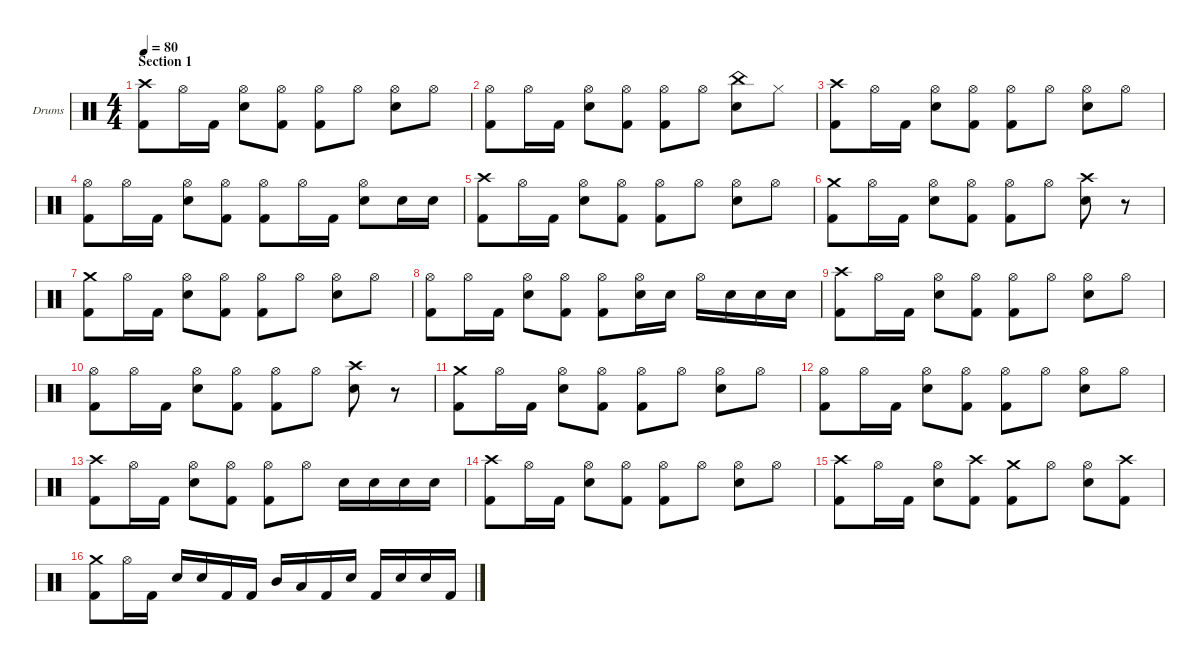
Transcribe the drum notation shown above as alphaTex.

\hideDynamics
\bracketExtendMode nobrackets
\firstSystemTrackNameOrientation horizontal
\otherSystemsTrackNameOrientation horizontal
\track ("Drumkit" "Drums") {instrument percussion}
\staff {score}
\articulation defaults
\ts (4 4)
\section ("" "Section 1")
\tempo 80
\clef neutral
\ks c
("Crash high (hit)" "Kick (hit) 2").8{dy f} "Hi-Hat (open)".16 "Kick (hit) 2".16 ("Hi-Hat (open)" "Snare (hit) 2").8 ("Hi-Hat (open)" "Kick (hit) 2").8 ("Hi-Hat (open)" "Kick (hit) 2").8 "Hi-Hat (open)".8 ("Hi-Hat (open)" "Snare (hit) 2").8 "Hi-Hat (open)".8 |
("Hi-Hat (open)" "Kick (hit) 2").8 "Hi-Hat (open)".16 "Kick (hit) 2".16 ("Hi-Hat (open)" "Snare (hit) 2").8 ("Hi-Hat (open)" "Kick (hit) 2").8 ("Hi-Hat (open)" "Kick (hit) 2").8 "Hi-Hat (open)".8 ("China (hit)" "Snare (hit) 2").8{dy ff} "Hi-Hat (closed)".8{dy mf} |
("Crash high (hit)" "Kick (hit) 2").8{dy f} "Hi-Hat (open)".16 "Kick (hit) 2".16 ("Hi-Hat (open)" "Snare (hit) 2").8 ("Hi-Hat (open)" "Kick (hit) 2").8 ("Hi-Hat (open)" "Kick (hit) 2").8 "Hi-Hat (open)".8 ("Hi-Hat (open)" "Snare (hit) 2").8 "Hi-Hat (open)".8 |
("Hi-Hat (open)" "Kick (hit) 2").8 "Hi-Hat (open)".16 "Kick (hit) 2".16 ("Hi-Hat (open)" "Snare (hit) 2").8 ("Hi-Hat (open)" "Kick (hit) 2").8 ("Hi-Hat (open)" "Kick (hit) 2").8 "Hi-Hat (open)".16 "Kick (hit) 2".16 ("Hi-Hat (open)" "Snare (hit) 2").8{dy fff} "Snare (hit) 2".16{dy f} "Snare (hit) 2".16{dy ff} |
("Crash high (hit)" "Kick (hit) 2").8{dy f} "Hi-Hat (open)".16 "Kick (hit) 2".16 ("Hi-Hat (open)" "Snare (hit) 2").8 ("Hi-Hat (open)" "Kick (hit) 2").8 ("Hi-Hat (open)" "Kick (hit) 2").8 "Hi-Hat (open)".8 ("Hi-Hat (open)" "Snare (hit) 2").8 "Hi-Hat (open)".8 |
("Crash medium (hit)" "Kick (hit) 2").8 "Hi-Hat (open)".16 "Kick (hit) 2".16 ("Hi-Hat (open)" "Snare (hit) 2").8 ("Hi-Hat (open)" "Kick (hit) 2").8 ("Hi-Hat (open)" "Kick (hit) 2").8 "Hi-Hat (open)".8 ("Crash high (hit)" "Snare (hit) 2").8 r.8 |
("Crash medium (hit)" "Kick (hit) 2").8 "Hi-Hat (open)".16 "Kick (hit) 2".16 ("Hi-Hat (open)" "Snare (hit) 2").8 ("Hi-Hat (open)" "Kick (hit) 2").8 ("Hi-Hat (open)" "Kick (hit) 2").8 "Hi-Hat (open)".8 ("Hi-Hat (open)" "Snare (hit) 2").8 "Hi-Hat (open)".8 |
("Hi-Hat (open)" "Kick (hit) 2").8 "Hi-Hat (open)".16 "Kick (hit) 2".16 ("Hi-Hat (open)" "Snare (hit) 2").8 ("Hi-Hat (open)" "Kick (hit) 2").8 ("Hi-Hat (open)" "Kick (hit) 2").8 ("Hi-Hat (open)" "Snare (hit) 2").16 "Snare (hit) 2".16 "Hi-Hat (open)".16 "Snare (hit) 2".16 "Snare (hit) 2".16 "Snare (hit) 2".16 |
("Crash high (hit)" "Kick (hit) 2").8 "Hi-Hat (open)".16 "Kick (hit) 2".16 ("Hi-Hat (open)" "Snare (hit) 2").8 ("Hi-Hat (open)" "Kick (hit) 2").8 ("Hi-Hat (open)" "Kick (hit) 2").8 "Hi-Hat (open)".8 ("Hi-Hat (open)" "Snare (hit) 2").8 "Hi-Hat (open)".8 |
("Hi-Hat (open)" "Kick (hit) 2").8 "Hi-Hat (open)".16 "Kick (hit) 2".16 ("Hi-Hat (open)" "Snare (hit) 2").8 ("Hi-Hat (open)" "Kick (hit) 2").8 ("Hi-Hat (open)" "Kick (hit) 2").8 "Hi-Hat (open)".8 ("Crash high (hit)" "Snare (hit) 2").8 r.8 |
("Crash medium (hit)" "Kick (hit) 2").8 "Hi-Hat (open)".16 "Kick (hit) 2".16 ("Hi-Hat (open)" "Snare (hit) 2").8 ("Hi-Hat (open)" "Kick (hit) 2").8 ("Hi-Hat (open)" "Kick (hit) 2").8 "Hi-Hat (open)".8 ("Hi-Hat (open)" "Snare (hit) 2").8 "Hi-Hat (open)".8 |
("Hi-Hat (open)" "Kick (hit) 2").8 "Hi-Hat (open)".16 "Kick (hit) 2".16 ("Hi-Hat (open)" "Snare (hit) 2").8 ("Hi-Hat (open)" "Kick (hit) 2").8 ("Hi-Hat (open)" "Kick (hit) 2").8 "Hi-Hat (open)".8 ("Hi-Hat (open)" "Snare (hit) 2").8 "Hi-Hat (open)".8 |
("Crash high (hit)" "Kick (hit) 2").8 "Hi-Hat (open)".16 "Kick (hit) 2".16 ("Hi-Hat (open)" "Snare (hit) 2").8 ("Hi-Hat (open)" "Kick (hit) 2").8 ("Hi-Hat (open)" "Kick (hit) 2").8 "Hi-Hat (open)".8 "Snare (hit) 2".16 "Snare (hit) 2".16 "Snare (hit) 2".16{dy ff} "Snare (hit) 2".16 |
("Crash high (hit)" "Kick (hit) 2").8{dy f} "Hi-Hat (open)".16 "Kick (hit) 2".16 ("Hi-Hat (open)" "Snare (hit) 2").8 ("Hi-Hat (open)" "Kick (hit) 2").8 ("Hi-Hat (open)" "Kick (hit) 2").8 "Hi-Hat (open)".8 ("Hi-Hat (open)" "Snare (hit) 2").8 "Hi-Hat (open)".8 |
("Crash high (hit)" "Kick (hit) 2").8 "Hi-Hat (open)".16 "Kick (hit) 2".16 ("Hi-Hat (open)" "Snare (hit) 2").8 ("Crash high (hit)" "Kick (hit) 2").8 ("Crash medium (hit)" "Kick (hit) 2").8 "Hi-Hat (open)".8 ("Hi-Hat (open)" "Snare (hit) 2").8 ("Crash high (hit)" "Kick (hit) 2").8 |
("Crash medium (hit)" "Kick (hit) 2").8 "Hi-Hat (open)".16 "Kick (hit) 2".16 "Snare (hit) 2".16 "Snare (hit) 2".16 "Kick (hit) 2".16 "Kick (hit) 2".16 "Mid Tom (hit)".16 "Low Tom (hit)".16 "Kick (hit) 2".16 "Snare (hit) 2".16 "Kick (hit) 2".16 "Snare (hit) 2".16 "Snare (hit) 2".16 "Kick (hit) 2".16
